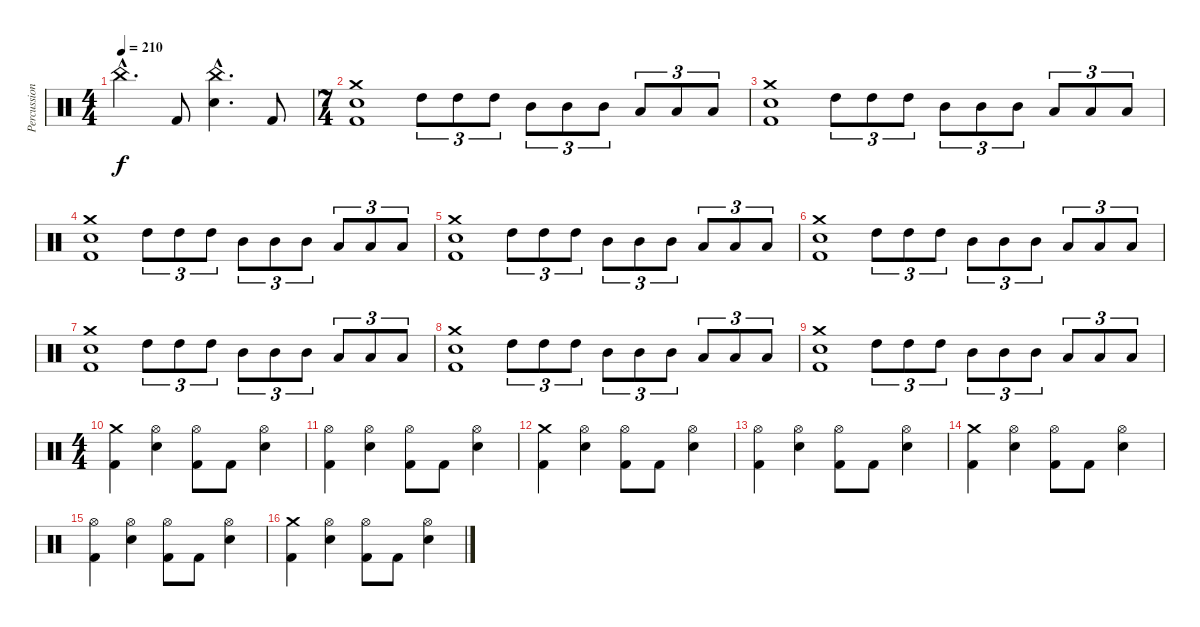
\track ("Percussion" "Percussion") {instrument percussion}
\staff {score}
\articulation defaults
\ts (4 4)
\tempo 210
\clef neutral
\ks c "China (hit)"{hac}.4{d dy f} "Kick (hit) 2".8
("China (hit)"{hac} "Electric Snare (hit)"{hac}).4{d} "Kick (hit) 2".8 |
\ts (7 4)
("Crash medium (hit)" "Electric Snare (hit)" "Kick (hit) 2").1 "High Tom (hit)".8{tu (3 2)} "High Tom (hit)".8{tu (3 2)} "High Tom (hit)".8{tu (3 2)} "Mid Tom (hit)".8{tu (3 2)} "Mid Tom (hit)".8{tu (3 2)} "Mid Tom (hit)".8{tu (3 2)} "Low Tom (hit)".8{tu (3 2)} "Low Tom (hit)".8{tu (3 2)} "Low Tom (hit)".8{tu (3 2)} |
("Crash medium (hit)" "Electric Snare (hit)" "Kick (hit) 2").1 "High Tom (hit)".8{tu (3 2)} "High Tom (hit)".8{tu (3 2)} "High Tom (hit)".8{tu (3 2)} "Mid Tom (hit)".8{tu (3 2)} "Mid Tom (hit)".8{tu (3 2)} "Mid Tom (hit)".8{tu (3 2)} "Low Tom (hit)".8{tu (3 2)} "Low Tom (hit)".8{tu (3 2)} "Low Tom (hit)".8{tu (3 2)} |
("Crash medium (hit)" "Electric Snare (hit)" "Kick (hit) 2").1 "High Tom (hit)".8{tu (3 2)} "High Tom (hit)".8{tu (3 2)} "High Tom (hit)".8{tu (3 2)} "Mid Tom (hit)".8{tu (3 2)} "Mid Tom (hit)".8{tu (3 2)} "Mid Tom (hit)".8{tu (3 2)} "Low Tom (hit)".8{tu (3 2)} "Low Tom (hit)".8{tu (3 2)} "Low Tom (hit)".8{tu (3 2)} |
("Crash medium (hit)" "Electric Snare (hit)" "Kick (hit) 2").1 "High Tom (hit)".8{tu (3 2)} "High Tom (hit)".8{tu (3 2)} "High Tom (hit)".8{tu (3 2)} "Mid Tom (hit)".8{tu (3 2)} "Mid Tom (hit)".8{tu (3 2)} "Mid Tom (hit)".8{tu (3 2)} "Low Tom (hit)".8{tu (3 2)} "Low Tom (hit)".8{tu (3 2)} "Low Tom (hit)".8{tu (3 2)} |
("Crash medium (hit)" "Electric Snare (hit)" "Kick (hit) 2").1 "High Tom (hit)".8{tu (3 2)} "High Tom (hit)".8{tu (3 2)} "High Tom (hit)".8{tu (3 2)} "Mid Tom (hit)".8{tu (3 2)} "Mid Tom (hit)".8{tu (3 2)} "Mid Tom (hit)".8{tu (3 2)} "Low Tom (hit)".8{tu (3 2)} "Low Tom (hit)".8{tu (3 2)} "Low Tom (hit)".8{tu (3 2)} |
("Crash medium (hit)" "Electric Snare (hit)" "Kick (hit) 2").1 "High Tom (hit)".8{tu (3 2)} "High Tom (hit)".8{tu (3 2)} "High Tom (hit)".8{tu (3 2)} "Mid Tom (hit)".8{tu (3 2)} "Mid Tom (hit)".8{tu (3 2)} "Mid Tom (hit)".8{tu (3 2)} "Low Tom (hit)".8{tu (3 2)} "Low Tom (hit)".8{tu (3 2)} "Low Tom (hit)".8{tu (3 2)} |
("Crash medium (hit)" "Electric Snare (hit)" "Kick (hit) 2").1 "High Tom (hit)".8{tu (3 2)} "High Tom (hit)".8{tu (3 2)} "High Tom (hit)".8{tu (3 2)} "Mid Tom (hit)".8{tu (3 2)} "Mid Tom (hit)".8{tu (3 2)} "Mid Tom (hit)".8{tu (3 2)} "Low Tom (hit)".8{tu (3 2)} "Low Tom (hit)".8{tu (3 2)} "Low Tom (hit)".8{tu (3 2)} |
("Crash medium (hit)" "Electric Snare (hit)" "Kick (hit) 2").1 "High Tom (hit)".8{tu (3 2)} "High Tom (hit)".8{tu (3 2)} "High Tom (hit)".8{tu (3 2)} "Mid Tom (hit)".8{tu (3 2)} "Mid Tom (hit)".8{tu (3 2)} "Mid Tom (hit)".8{tu (3 2)} "Low Tom (hit)".8{tu (3 2)} "Low Tom (hit)".8{tu (3 2)} "Low Tom (hit)".8{tu (3 2)} |
\ts (4 4)
("Crash medium (hit)" "Kick (hit) 2").4 ("Hi-Hat (open)" "Electric Snare (hit)").4 ("Hi-Hat (open)" "Kick (hit) 2").8 "Kick (hit) 2".8 ("Hi-Hat (open)" "Electric Snare (hit)").4 |
("Hi-Hat (open)" "Kick (hit) 2").4 ("Hi-Hat (open)" "Electric Snare (hit)").4 ("Hi-Hat (open)" "Kick (hit) 2").8 "Kick (hit) 2".8 ("Hi-Hat (open)" "Electric Snare (hit)").4 |
("Crash medium (hit)" "Kick (hit) 2").4 ("Hi-Hat (open)" "Electric Snare (hit)").4 ("Hi-Hat (open)" "Kick (hit) 2").8 "Kick (hit) 2".8 ("Hi-Hat (open)" "Electric Snare (hit)").4 |
("Hi-Hat (open)" "Kick (hit) 2").4 ("Hi-Hat (open)" "Electric Snare (hit)").4 ("Hi-Hat (open)" "Kick (hit) 2").8 "Kick (hit) 2".8 ("Hi-Hat (open)" "Electric Snare (hit)").4 |
("Crash medium (hit)" "Kick (hit) 2").4 ("Hi-Hat (open)" "Electric Snare (hit)").4 ("Hi-Hat (open)" "Kick (hit) 2").8 "Kick (hit) 2".8 ("Hi-Hat (open)" "Electric Snare (hit)").4 |
("Hi-Hat (open)" "Kick (hit) 2").4 ("Hi-Hat (open)" "Electric Snare (hit)").4 ("Hi-Hat (open)" "Kick (hit) 2").8 "Kick (hit) 2".8 ("Hi-Hat (open)" "Electric Snare (hit)").4 |
("Crash medium (hit)" "Kick (hit) 2").4 ("Hi-Hat (open)" "Electric Snare (hit)").4 ("Hi-Hat (open)" "Kick (hit) 2").8 "Kick (hit) 2".8 ("Hi-Hat (open)" "Electric Snare (hit)").4
